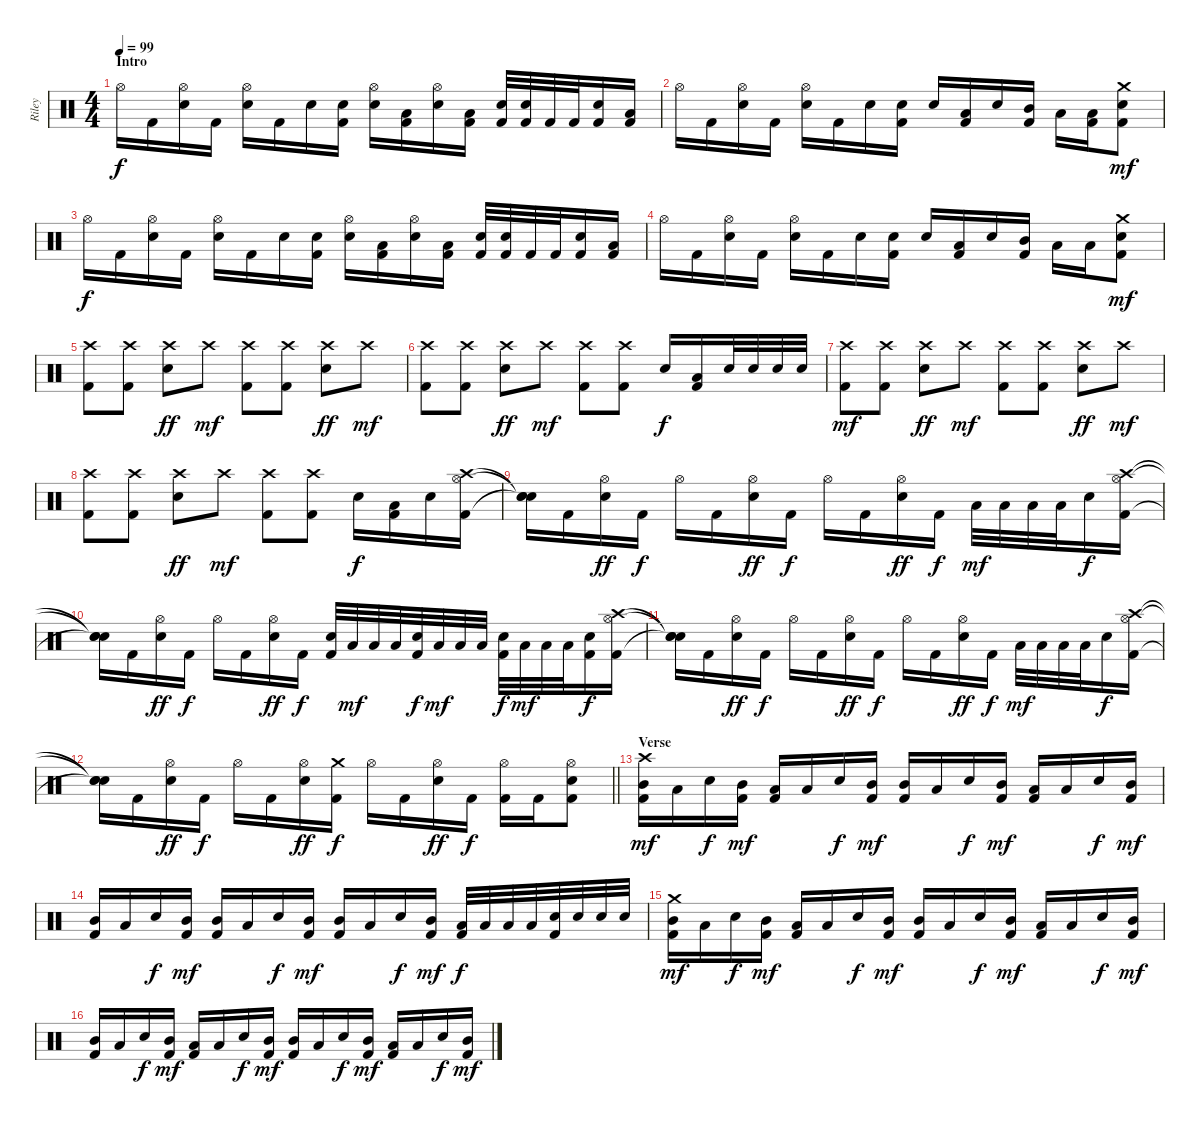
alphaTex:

\track ("Riley" "Riley") {instrument percussion}
\staff {score}
\articulation defaults
\ts (4 4)
\section ("" "Intro")
\tempo 99
\clef neutral
\ks c "Hi-Hat (open)".16{dy f} "Kick (hit) 2".16
("Hi-Hat (open)" "Electric Snare (hit)").16 "Kick (hit) 2".16 ("Hi-Hat (open)" "Electric Snare (hit)").16 "Kick (hit) 2".16 "Electric Snare (hit)".16 ("Electric Snare (hit)" "Kick (hit) 2").16 ("Hi-Hat (open)" "Electric Snare (hit)").16 ("Low Tom (hit)" "Kick (hit) 2").16 ("Hi-Hat (open)" "Electric Snare (hit)").16 ("Low Tom (hit)" "Kick (hit) 2").16 ("Electric Snare (hit)" "Kick (hit) 2").32 ("Electric Snare (hit)" "Kick (hit) 2").32 "Kick (hit) 2".32 "Kick (hit) 2".32 ("Electric Snare (hit)" "Kick (hit) 2").16 ("Low Tom (hit)" "Kick (hit) 2").16 |
"Hi-Hat (open)".16 "Kick (hit) 2".16 ("Hi-Hat (open)" "Electric Snare (hit)").16 "Kick (hit) 2".16 ("Hi-Hat (open)" "Electric Snare (hit)").16 "Kick (hit) 2".16 "Electric Snare (hit)".16 ("Electric Snare (hit)" "Kick (hit) 2").16 "Electric Snare (hit)".16 ("Low Tom (hit)" "Kick (hit) 2").16 "Electric Snare (hit)".16 ("Mid Tom (hit)" "Kick (hit) 2").16 "Low Tom (hit)".16 ("Low Tom (hit)" "Kick (hit) 2").16 ("Crash medium (hit)" "Electric Snare (hit)" "Kick (hit) 2").8{dy mf} |
"Hi-Hat (open)".16{dy f} "Kick (hit) 2".16 ("Hi-Hat (open)" "Electric Snare (hit)").16 "Kick (hit) 2".16 ("Hi-Hat (open)" "Electric Snare (hit)").16 "Kick (hit) 2".16 "Electric Snare (hit)".16 ("Electric Snare (hit)" "Kick (hit) 2").16 ("Hi-Hat (open)" "Electric Snare (hit)").16 ("Low Tom (hit)" "Kick (hit) 2").16 ("Hi-Hat (open)" "Electric Snare (hit)").16 ("Low Tom (hit)" "Kick (hit) 2").16 ("Electric Snare (hit)" "Kick (hit) 2").32 ("Electric Snare (hit)" "Kick (hit) 2").32 "Kick (hit) 2".32 "Kick (hit) 2".32 ("Electric Snare (hit)" "Kick (hit) 2").16 ("Low Tom (hit)" "Kick (hit) 2").16 |
"Hi-Hat (open)".16 "Kick (hit) 2".16 ("Hi-Hat (open)" "Electric Snare (hit)").16 "Kick (hit) 2".16 ("Hi-Hat (open)" "Electric Snare (hit)").16 "Kick (hit) 2".16 "Electric Snare (hit)".16 ("Electric Snare (hit)" "Kick (hit) 2").16 "Electric Snare (hit)".16 ("Low Tom (hit)" "Kick (hit) 2").16 "Electric Snare (hit)".16 ("Mid Tom (hit)" "Kick (hit) 2").16 "Low Tom (hit)".16 "Low Tom (hit)".16 ("Crash medium (hit)" "Electric Snare (hit)" "Kick (hit) 2").8{dy mf} |
("Crash high (hit)" "Kick (hit) 2").8 ("Crash high (hit)" "Kick (hit) 2").8 ("Crash high (hit)" "Electric Snare (hit)").8{dy ff} "Crash high (hit)".8{dy mf} ("Crash high (hit)" "Kick (hit) 2").8 ("Crash high (hit)" "Kick (hit) 2").8 ("Crash high (hit)" "Electric Snare (hit)").8{dy ff} "Crash high (hit)".8{dy mf} |
("Crash high (hit)" "Kick (hit) 2").8 ("Crash high (hit)" "Kick (hit) 2").8 ("Crash high (hit)" "Electric Snare (hit)").8{dy ff} "Crash high (hit)".8{dy mf} ("Crash high (hit)" "Kick (hit) 2").8 ("Crash high (hit)" "Kick (hit) 2").8 "Electric Snare (hit)".16{dy f} ("Low Tom (hit)" "Kick (hit) 2").16 "Electric Snare (hit)".32 "Electric Snare (hit)".32 "Electric Snare (hit)".32 "Electric Snare (hit)".32 |
("Crash high (hit)" "Kick (hit) 2").8{dy mf} ("Crash high (hit)" "Kick (hit) 2").8 ("Crash high (hit)" "Electric Snare (hit)").8{dy ff} "Crash high (hit)".8{dy mf} ("Crash high (hit)" "Kick (hit) 2").8 ("Crash high (hit)" "Kick (hit) 2").8 ("Crash high (hit)" "Electric Snare (hit)").8{dy ff} "Crash high (hit)".8{dy mf} |
("Crash high (hit)" "Kick (hit) 2").8 ("Crash high (hit)" "Kick (hit) 2").8 ("Crash high (hit)" "Electric Snare (hit)").8{dy ff} "Crash high (hit)".8{dy mf} ("Crash high (hit)" "Kick (hit) 2").8 ("Crash high (hit)" "Kick (hit) 2").8 "Electric Snare (hit)".16{dy f} ("Low Tom (hit)" "Kick (hit) 2").16 "Electric Snare (hit)".16 ("Crash high (hit)" "Hi-Hat (open)" "Kick (hit) 2").16 |
("Snare (hit)"{t} "Snare (hit)"{t} "Snare (hit)"{t}).16 "Kick (hit) 2".16 ("Hi-Hat (open)" "Electric Snare (hit)").16{dy ff} "Kick (hit) 2".16{dy f} "Hi-Hat (open)".16 "Kick (hit) 2".16 ("Hi-Hat (open)" "Electric Snare (hit)").16{dy ff} "Kick (hit) 2".16{dy f} "Hi-Hat (open)".16 "Kick (hit) 2".16 ("Hi-Hat (open)" "Electric Snare (hit)").16{dy ff} "Kick (hit) 2".16{dy f} "Low Tom (hit)".32{dy mf} "Low Tom (hit)".32 "Low Tom (hit)".32 "Low Tom (hit)".32 "Electric Snare (hit)".16{dy f} ("Crash high (hit)" "Hi-Hat (open)" "Kick (hit) 2").16 |
("Snare (hit)"{t} "Snare (hit)"{t} "Snare (hit)"{t}).16 "Kick (hit) 2".16 ("Hi-Hat (open)" "Electric Snare (hit)").16{dy ff} "Kick (hit) 2".16{dy f} "Hi-Hat (open)".16 "Kick (hit) 2".16 ("Hi-Hat (open)" "Electric Snare (hit)").16{dy ff} "Kick (hit) 2".16{dy f} ("Electric Snare (hit)" "Kick (hit) 2").32 "Low Tom (hit)".32{dy mf} "Low Tom (hit)".32 "Low Tom (hit)".32 ("Electric Snare (hit)" "Kick (hit) 2").32{dy f} "Low Tom (hit)".32{dy mf} "Low Tom (hit)".32 "Low Tom (hit)".32 ("Electric Snare (hit)" "Kick (hit) 2").32{dy f} "Low Tom (hit)".32{dy mf} "Low Tom (hit)".32 "Low Tom (hit)".32 ("Electric Snare (hit)" "Kick (hit) 2").16{dy f} ("Crash high (hit)" "Hi-Hat (open)" "Kick (hit) 2").16 |
("Snare (hit)"{t} "Snare (hit)"{t} "Snare (hit)"{t}).16 "Kick (hit) 2".16 ("Hi-Hat (open)" "Electric Snare (hit)").16{dy ff} "Kick (hit) 2".16{dy f} "Hi-Hat (open)".16 "Kick (hit) 2".16 ("Hi-Hat (open)" "Electric Snare (hit)").16{dy ff} "Kick (hit) 2".16{dy f} "Hi-Hat (open)".16 "Kick (hit) 2".16 ("Hi-Hat (open)" "Electric Snare (hit)").16{dy ff} "Kick (hit) 2".16{dy f} "Low Tom (hit)".32{dy mf} "Low Tom (hit)".32 "Low Tom (hit)".32 "Low Tom (hit)".32 "Electric Snare (hit)".16{dy f} ("Crash high (hit)" "Hi-Hat (open)" "Kick (hit) 2").16 |
\barLineRight lightlight
("Snare (hit)"{t} "Snare (hit)"{t} "Snare (hit)"{t}).16 "Kick (hit) 2".16 ("Hi-Hat (open)" "Electric Snare (hit)").16{dy ff} "Kick (hit) 2".16{dy f} "Hi-Hat (open)".16 "Kick (hit) 2".16 ("Hi-Hat (open)" "Electric Snare (hit)").16{dy ff} ("Crash medium (hit)" "Kick (hit) 2").16{dy f} "Hi-Hat (open)".16 "Kick (hit) 2".16 ("Hi-Hat (open)" "Electric Snare (hit)").16{dy ff} "Kick (hit) 2".16{dy f} ("Hi-Hat (open)" "Kick (hit) 2").16 "Kick (hit) 2".16 ("Hi-Hat (open)" "Electric Snare (hit)" "Kick (hit) 2").8 |
\section ("" "Verse")
("Crash high (hit)" "Mid Tom (hit)" "Kick (hit) 2").16{dy mf} "Low Tom (hit)".16 "Electric Snare (hit)".16{dy f} ("Mid Tom (hit)" "Kick (hit) 2").16{dy mf} ("Low Tom (hit)" "Kick (hit) 2").16 "Low Tom (hit)".16 "Electric Snare (hit)".16{dy f} ("Mid Tom (hit)" "Kick (hit) 2").16{dy mf} ("Mid Tom (hit)" "Kick (hit) 2").16 "Low Tom (hit)".16 "Electric Snare (hit)".16{dy f} ("Mid Tom (hit)" "Kick (hit) 2").16{dy mf} ("Low Tom (hit)" "Kick (hit) 2").16 "Low Tom (hit)".16 "Electric Snare (hit)".16{dy f} ("Mid Tom (hit)" "Kick (hit) 2").16{dy mf} |
("Mid Tom (hit)" "Kick (hit) 2").16 "Low Tom (hit)".16 "Electric Snare (hit)".16{dy f} ("Mid Tom (hit)" "Kick (hit) 2").16{dy mf} ("Mid Tom (hit)" "Kick (hit) 2").16 "Low Tom (hit)".16 "Electric Snare (hit)".16{dy f} ("Mid Tom (hit)" "Kick (hit) 2").16{dy mf} ("Mid Tom (hit)" "Kick (hit) 2").16 "Low Tom (hit)".16 "Electric Snare (hit)".16{dy f} ("Mid Tom (hit)" "Kick (hit) 2").16{dy mf} ("Low Tom (hit)" "Kick (hit) 2").32{dy f} "Low Tom (hit)".32 "Low Tom (hit)".32 "Low Tom (hit)".32 ("Electric Snare (hit)" "Kick (hit) 2").32 "Electric Snare (hit)".32 "Electric Snare (hit)".32 "Electric Snare (hit)".32 |
("Crash medium (hit)" "Mid Tom (hit)" "Kick (hit) 2").16{dy mf} "Low Tom (hit)".16 "Electric Snare (hit)".16{dy f} ("Mid Tom (hit)" "Kick (hit) 2").16{dy mf} ("Low Tom (hit)" "Kick (hit) 2").16 "Low Tom (hit)".16 "Electric Snare (hit)".16{dy f} ("Mid Tom (hit)" "Kick (hit) 2").16{dy mf} ("Mid Tom (hit)" "Kick (hit) 2").16 "Low Tom (hit)".16 "Electric Snare (hit)".16{dy f} ("Mid Tom (hit)" "Kick (hit) 2").16{dy mf} ("Low Tom (hit)" "Kick (hit) 2").16 "Low Tom (hit)".16 "Electric Snare (hit)".16{dy f} ("Mid Tom (hit)" "Kick (hit) 2").16{dy mf} |
("Mid Tom (hit)" "Kick (hit) 2").16 "Low Tom (hit)".16 "Electric Snare (hit)".16{dy f} ("Mid Tom (hit)" "Kick (hit) 2").16{dy mf} ("Low Tom (hit)" "Kick (hit) 2").16 "Low Tom (hit)".16 "Electric Snare (hit)".16{dy f} ("Mid Tom (hit)" "Kick (hit) 2").16{dy mf} ("Mid Tom (hit)" "Kick (hit) 2").16 "Low Tom (hit)".16 "Electric Snare (hit)".16{dy f} ("Mid Tom (hit)" "Kick (hit) 2").16{dy mf} ("Low Tom (hit)" "Kick (hit) 2").16 "Low Tom (hit)".16 "Electric Snare (hit)".16{dy f} ("Mid Tom (hit)" "Kick (hit) 2").16{dy mf}
